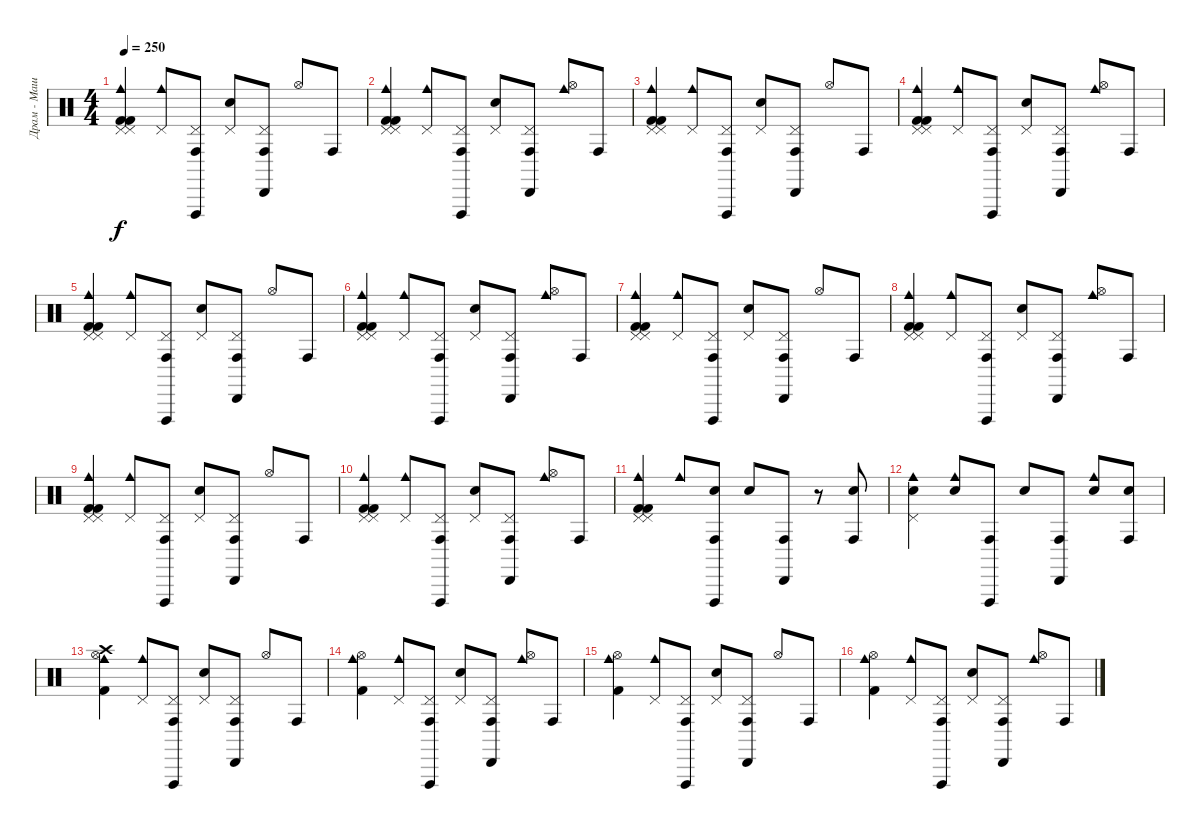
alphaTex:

\track ("Драм - Машина" "Драм - Маш") {instrument percussion}
\staff {score}
\articulation defaults
\ts (4 4)
\tempo 250
\clef neutral
\ks c
("Cowbell medium (hit)" "Kick (hit) 2" "Pedal Hi-Hat (hit)" "Pedal Hi-Hat (hit)" "Kick (hit) 2").4{dy f} ("Cowbell medium (hit)" "Pedal Hi-Hat (hit)").8 ("Conga high (hit)" "Vibraslap (hit)" "Pedal Hi-Hat (hit)").8 ("Pedal Hi-Hat (hit)" "Snare (hit) 2").8 ("Cabasa (hit)" "Conga high (hit)" "Pedal Hi-Hat (hit)").8 "Hi-Hat (open)".8 "Conga high (hit)".8 |
("Cowbell medium (hit)" "Kick (hit) 2" "Pedal Hi-Hat (hit)" "Pedal Hi-Hat (hit)" "Kick (hit) 2").4 ("Cowbell medium (hit)" "Pedal Hi-Hat (hit)").8 ("Conga high (hit)" "Vibraslap (hit)" "Pedal Hi-Hat (hit)").8 ("Pedal Hi-Hat (hit)" "Snare (hit) 2").8 ("Cabasa (hit)" "Conga high (hit)" "Pedal Hi-Hat (hit)").8 ("Cowbell medium (hit)" "Hi-Hat (open)").8 "Conga high (hit)".8 |
("Cowbell medium (hit)" "Kick (hit) 2" "Pedal Hi-Hat (hit)" "Pedal Hi-Hat (hit)" "Kick (hit) 2").4 ("Cowbell medium (hit)" "Pedal Hi-Hat (hit)").8 ("Conga high (hit)" "Vibraslap (hit)" "Pedal Hi-Hat (hit)").8 ("Pedal Hi-Hat (hit)" "Snare (hit) 2").8 ("Cabasa (hit)" "Conga high (hit)" "Pedal Hi-Hat (hit)").8 "Hi-Hat (open)".8 "Conga high (hit)".8 |
("Cowbell medium (hit)" "Kick (hit) 2" "Pedal Hi-Hat (hit)" "Pedal Hi-Hat (hit)" "Kick (hit) 2").4 ("Cowbell medium (hit)" "Pedal Hi-Hat (hit)").8 ("Conga high (hit)" "Vibraslap (hit)" "Pedal Hi-Hat (hit)").8 ("Pedal Hi-Hat (hit)" "Snare (hit) 2").8 ("Cabasa (hit)" "Conga high (hit)" "Pedal Hi-Hat (hit)").8 ("Cowbell medium (hit)" "Hi-Hat (open)").8 "Conga high (hit)".8 |
("Cowbell medium (hit)" "Kick (hit) 2" "Pedal Hi-Hat (hit)" "Pedal Hi-Hat (hit)" "Kick (hit) 2").4 ("Cowbell medium (hit)" "Pedal Hi-Hat (hit)").8 ("Conga high (hit)" "Vibraslap (hit)" "Pedal Hi-Hat (hit)").8 ("Pedal Hi-Hat (hit)" "Snare (hit) 2").8 ("Cabasa (hit)" "Conga high (hit)" "Pedal Hi-Hat (hit)").8 "Hi-Hat (open)".8 "Conga high (hit)".8 |
("Cowbell medium (hit)" "Kick (hit) 2" "Pedal Hi-Hat (hit)" "Pedal Hi-Hat (hit)" "Kick (hit) 2").4 ("Cowbell medium (hit)" "Pedal Hi-Hat (hit)").8 ("Conga high (hit)" "Vibraslap (hit)" "Pedal Hi-Hat (hit)").8 ("Pedal Hi-Hat (hit)" "Snare (hit) 2").8 ("Cabasa (hit)" "Conga high (hit)" "Pedal Hi-Hat (hit)").8 ("Cowbell medium (hit)" "Hi-Hat (open)").8 "Conga high (hit)".8 |
("Cowbell medium (hit)" "Kick (hit) 2" "Pedal Hi-Hat (hit)" "Pedal Hi-Hat (hit)" "Kick (hit) 2").4 ("Cowbell medium (hit)" "Pedal Hi-Hat (hit)").8 ("Conga high (hit)" "Vibraslap (hit)" "Pedal Hi-Hat (hit)").8 ("Pedal Hi-Hat (hit)" "Snare (hit) 2").8 ("Cabasa (hit)" "Conga high (hit)" "Pedal Hi-Hat (hit)").8 "Hi-Hat (open)".8 "Conga high (hit)".8 |
("Cowbell medium (hit)" "Kick (hit) 2" "Pedal Hi-Hat (hit)" "Pedal Hi-Hat (hit)" "Kick (hit) 2").4 ("Cowbell medium (hit)" "Pedal Hi-Hat (hit)").8 ("Conga high (hit)" "Vibraslap (hit)" "Pedal Hi-Hat (hit)").8 ("Pedal Hi-Hat (hit)" "Snare (hit) 2").8 ("Cabasa (hit)" "Conga high (hit)" "Pedal Hi-Hat (hit)").8 ("Cowbell medium (hit)" "Hi-Hat (open)").8 "Conga high (hit)".8 |
("Cowbell medium (hit)" "Kick (hit) 2" "Pedal Hi-Hat (hit)" "Pedal Hi-Hat (hit)" "Kick (hit) 2").4 ("Cowbell medium (hit)" "Pedal Hi-Hat (hit)").8 ("Conga high (hit)" "Vibraslap (hit)" "Pedal Hi-Hat (hit)").8 ("Pedal Hi-Hat (hit)" "Snare (hit) 2").8 ("Cabasa (hit)" "Conga high (hit)" "Pedal Hi-Hat (hit)").8 "Hi-Hat (open)".8 "Conga high (hit)".8 |
("Cowbell medium (hit)" "Kick (hit) 2" "Pedal Hi-Hat (hit)" "Pedal Hi-Hat (hit)" "Kick (hit) 2").4 ("Cowbell medium (hit)" "Pedal Hi-Hat (hit)").8 ("Conga high (hit)" "Vibraslap (hit)" "Pedal Hi-Hat (hit)").8 ("Pedal Hi-Hat (hit)" "Snare (hit) 2").8 ("Cabasa (hit)" "Conga high (hit)" "Pedal Hi-Hat (hit)").8 ("Cowbell medium (hit)" "Hi-Hat (open)").8 "Conga high (hit)".8 |
("Cowbell medium (hit)" "Kick (hit) 2" "Pedal Hi-Hat (hit)" "Pedal Hi-Hat (hit)" "Kick (hit) 2").4 "Cowbell medium (hit)".8 ("Conga high (hit)" "Vibraslap (hit)" "Electric Snare (hit)").8 "Electric Snare (hit)".8 ("Cabasa (hit)" "Conga high (hit)").8 r.8 ("Conga high (hit)" "Electric Snare (hit)").8 |
("Cowbell medium (hit)" "Pedal Hi-Hat (hit)" "Electric Snare (hit)").4 ("Cowbell medium (hit)" "Electric Snare (hit)").8 ("Conga high (hit)" "Vibraslap (hit)").8 "Electric Snare (hit)".8 ("Cabasa (hit)" "Conga high (hit)").8 ("Cowbell medium (hit)" "Electric Snare (hit)").8 ("Conga high (hit)" "Electric Snare (hit)").8 |
("Cowbell medium (hit)" "Crash high (hit)" "Hi-Hat (open)" "Kick (hit) 2").4 ("Cowbell medium (hit)" "Pedal Hi-Hat (hit)").8 ("Conga high (hit)" "Vibraslap (hit)" "Pedal Hi-Hat (hit)").8 ("Pedal Hi-Hat (hit)" "Snare (hit) 2").8 ("Cabasa (hit)" "Conga high (hit)" "Pedal Hi-Hat (hit)").8 "Hi-Hat (open)".8 "Conga high (hit)".8 |
("Cowbell medium (hit)" "Hi-Hat (open)" "Kick (hit) 2").4 ("Cowbell medium (hit)" "Pedal Hi-Hat (hit)").8 ("Conga high (hit)" "Vibraslap (hit)" "Pedal Hi-Hat (hit)").8 ("Pedal Hi-Hat (hit)" "Snare (hit) 2").8 ("Cabasa (hit)" "Conga high (hit)" "Pedal Hi-Hat (hit)").8 ("Cowbell medium (hit)" "Hi-Hat (open)").8 "Conga high (hit)".8 |
("Cowbell medium (hit)" "Hi-Hat (open)" "Kick (hit) 2").4 ("Cowbell medium (hit)" "Pedal Hi-Hat (hit)").8 ("Conga high (hit)" "Vibraslap (hit)" "Pedal Hi-Hat (hit)").8 ("Pedal Hi-Hat (hit)" "Snare (hit) 2").8 ("Cabasa (hit)" "Conga high (hit)" "Pedal Hi-Hat (hit)").8 "Hi-Hat (open)".8 "Conga high (hit)".8 |
("Cowbell medium (hit)" "Hi-Hat (open)" "Kick (hit) 2").4 ("Cowbell medium (hit)" "Pedal Hi-Hat (hit)").8 ("Conga high (hit)" "Vibraslap (hit)" "Pedal Hi-Hat (hit)").8 ("Pedal Hi-Hat (hit)" "Snare (hit) 2").8 ("Cabasa (hit)" "Conga high (hit)" "Pedal Hi-Hat (hit)").8 ("Cowbell medium (hit)" "Hi-Hat (open)").8 "Conga high (hit)".8
